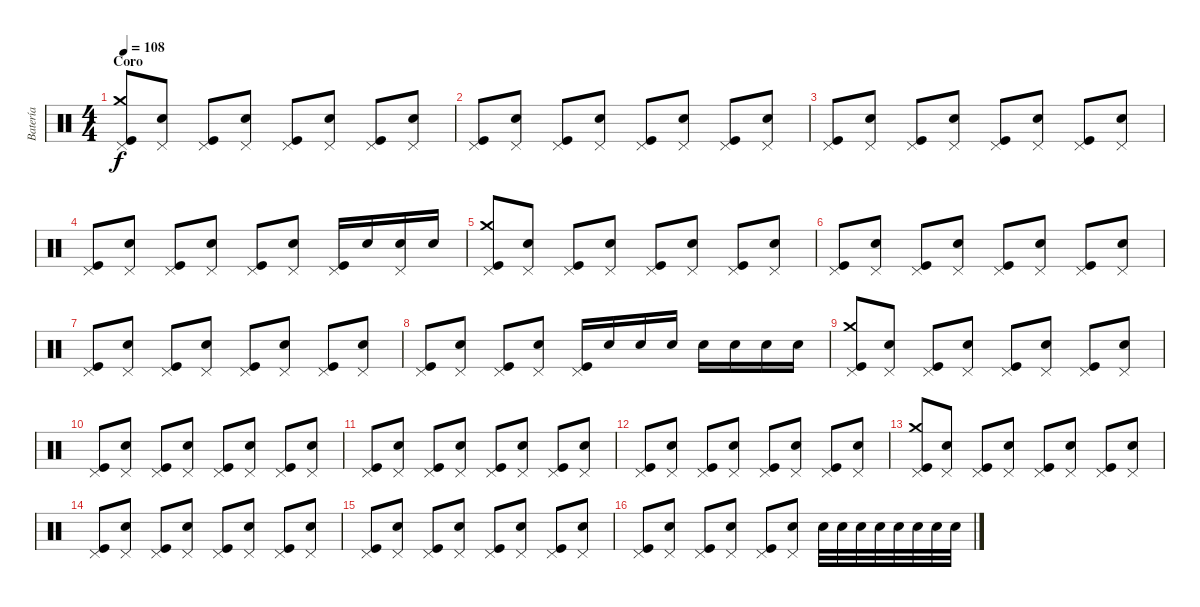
\track ("Batería" "Batería") {instrument percussion}
\staff {score}
\articulation defaults
\ts (4 4)
\section ("" "Coro")
\tempo 108
\clef neutral
\ks c
("Pedal Hi-Hat (hit)" "Crash medium (hit)" "Kick (hit)").8{dy f} ("Pedal Hi-Hat (hit)" "Electric Snare (hit)").8 ("Pedal Hi-Hat (hit)" "Kick (hit)").8 ("Pedal Hi-Hat (hit)" "Electric Snare (hit)").8 ("Pedal Hi-Hat (hit)" "Kick (hit)").8 ("Pedal Hi-Hat (hit)" "Electric Snare (hit)").8 ("Pedal Hi-Hat (hit)" "Kick (hit)").8 ("Pedal Hi-Hat (hit)" "Electric Snare (hit)").8 |
("Pedal Hi-Hat (hit)" "Kick (hit)").8 ("Pedal Hi-Hat (hit)" "Electric Snare (hit)").8 ("Pedal Hi-Hat (hit)" "Kick (hit)").8 ("Pedal Hi-Hat (hit)" "Electric Snare (hit)").8 ("Pedal Hi-Hat (hit)" "Kick (hit)").8 ("Pedal Hi-Hat (hit)" "Electric Snare (hit)").8 ("Pedal Hi-Hat (hit)" "Kick (hit)").8 ("Pedal Hi-Hat (hit)" "Electric Snare (hit)").8 |
("Pedal Hi-Hat (hit)" "Kick (hit)").8 ("Pedal Hi-Hat (hit)" "Electric Snare (hit)").8 ("Pedal Hi-Hat (hit)" "Kick (hit)").8 ("Pedal Hi-Hat (hit)" "Electric Snare (hit)").8 ("Pedal Hi-Hat (hit)" "Kick (hit)").8 ("Pedal Hi-Hat (hit)" "Electric Snare (hit)").8 ("Pedal Hi-Hat (hit)" "Kick (hit)").8 ("Pedal Hi-Hat (hit)" "Electric Snare (hit)").8 |
("Pedal Hi-Hat (hit)" "Kick (hit)").8 ("Pedal Hi-Hat (hit)" "Electric Snare (hit)").8 ("Pedal Hi-Hat (hit)" "Kick (hit)").8 ("Pedal Hi-Hat (hit)" "Electric Snare (hit)").8 ("Pedal Hi-Hat (hit)" "Kick (hit)").8 ("Pedal Hi-Hat (hit)" "Electric Snare (hit)").8 ("Pedal Hi-Hat (hit)" "Kick (hit)").16 "Electric Snare (hit)".16 ("Pedal Hi-Hat (hit)" "Electric Snare (hit)").16 "Electric Snare (hit)".16 |
("Pedal Hi-Hat (hit)" "Crash medium (hit)" "Kick (hit)").8 ("Pedal Hi-Hat (hit)" "Electric Snare (hit)").8 ("Pedal Hi-Hat (hit)" "Kick (hit)").8 ("Pedal Hi-Hat (hit)" "Electric Snare (hit)").8 ("Pedal Hi-Hat (hit)" "Kick (hit)").8 ("Pedal Hi-Hat (hit)" "Electric Snare (hit)").8 ("Pedal Hi-Hat (hit)" "Kick (hit)").8 ("Pedal Hi-Hat (hit)" "Electric Snare (hit)").8 |
("Pedal Hi-Hat (hit)" "Kick (hit)").8 ("Pedal Hi-Hat (hit)" "Electric Snare (hit)").8 ("Pedal Hi-Hat (hit)" "Kick (hit)").8 ("Pedal Hi-Hat (hit)" "Electric Snare (hit)").8 ("Pedal Hi-Hat (hit)" "Kick (hit)").8 ("Pedal Hi-Hat (hit)" "Electric Snare (hit)").8 ("Pedal Hi-Hat (hit)" "Kick (hit)").8 ("Pedal Hi-Hat (hit)" "Electric Snare (hit)").8 |
("Pedal Hi-Hat (hit)" "Kick (hit)").8 ("Pedal Hi-Hat (hit)" "Electric Snare (hit)").8 ("Pedal Hi-Hat (hit)" "Kick (hit)").8 ("Pedal Hi-Hat (hit)" "Electric Snare (hit)").8 ("Pedal Hi-Hat (hit)" "Kick (hit)").8 ("Pedal Hi-Hat (hit)" "Electric Snare (hit)").8 ("Pedal Hi-Hat (hit)" "Kick (hit)").8 ("Pedal Hi-Hat (hit)" "Electric Snare (hit)").8 |
("Pedal Hi-Hat (hit)" "Kick (hit)").8 ("Pedal Hi-Hat (hit)" "Electric Snare (hit)").8 ("Pedal Hi-Hat (hit)" "Kick (hit)").8 ("Pedal Hi-Hat (hit)" "Electric Snare (hit)").8 ("Pedal Hi-Hat (hit)" "Kick (hit)").16 "Electric Snare (hit)".16 "Electric Snare (hit)".16 "Electric Snare (hit)".16 "Electric Snare (hit)".16 "Electric Snare (hit)".16 "Electric Snare (hit)".16 "Electric Snare (hit)".16 |
("Pedal Hi-Hat (hit)" "Crash medium (hit)" "Kick (hit)").8 ("Pedal Hi-Hat (hit)" "Electric Snare (hit)").8 ("Pedal Hi-Hat (hit)" "Kick (hit)").8 ("Pedal Hi-Hat (hit)" "Electric Snare (hit)").8 ("Pedal Hi-Hat (hit)" "Kick (hit)").8 ("Pedal Hi-Hat (hit)" "Electric Snare (hit)").8 ("Pedal Hi-Hat (hit)" "Kick (hit)").8 ("Pedal Hi-Hat (hit)" "Electric Snare (hit)").8 |
("Pedal Hi-Hat (hit)" "Kick (hit)").8 ("Pedal Hi-Hat (hit)" "Electric Snare (hit)").8 ("Pedal Hi-Hat (hit)" "Kick (hit)").8 ("Pedal Hi-Hat (hit)" "Electric Snare (hit)").8 ("Pedal Hi-Hat (hit)" "Kick (hit)").8 ("Pedal Hi-Hat (hit)" "Electric Snare (hit)").8 ("Pedal Hi-Hat (hit)" "Kick (hit)").8 ("Pedal Hi-Hat (hit)" "Electric Snare (hit)").8 |
("Pedal Hi-Hat (hit)" "Kick (hit)").8 ("Pedal Hi-Hat (hit)" "Electric Snare (hit)").8 ("Pedal Hi-Hat (hit)" "Kick (hit)").8 ("Pedal Hi-Hat (hit)" "Electric Snare (hit)").8 ("Pedal Hi-Hat (hit)" "Kick (hit)").8 ("Pedal Hi-Hat (hit)" "Electric Snare (hit)").8 ("Pedal Hi-Hat (hit)" "Kick (hit)").8 ("Pedal Hi-Hat (hit)" "Electric Snare (hit)").8 |
("Pedal Hi-Hat (hit)" "Kick (hit)").8 ("Pedal Hi-Hat (hit)" "Electric Snare (hit)").8 ("Pedal Hi-Hat (hit)" "Kick (hit)").8 ("Pedal Hi-Hat (hit)" "Electric Snare (hit)").8 ("Pedal Hi-Hat (hit)" "Kick (hit)").8 ("Pedal Hi-Hat (hit)" "Electric Snare (hit)").8 ("Pedal Hi-Hat (hit)" "Kick (hit)").8 ("Pedal Hi-Hat (hit)" "Electric Snare (hit)").8 |
("Pedal Hi-Hat (hit)" "Crash medium (hit)" "Kick (hit)").8 ("Pedal Hi-Hat (hit)" "Electric Snare (hit)").8 ("Pedal Hi-Hat (hit)" "Kick (hit)").8 ("Pedal Hi-Hat (hit)" "Electric Snare (hit)").8 ("Pedal Hi-Hat (hit)" "Kick (hit)").8 ("Pedal Hi-Hat (hit)" "Electric Snare (hit)").8 ("Pedal Hi-Hat (hit)" "Kick (hit)").8 ("Pedal Hi-Hat (hit)" "Electric Snare (hit)").8 |
("Pedal Hi-Hat (hit)" "Kick (hit)").8 ("Pedal Hi-Hat (hit)" "Electric Snare (hit)").8 ("Pedal Hi-Hat (hit)" "Kick (hit)").8 ("Pedal Hi-Hat (hit)" "Electric Snare (hit)").8 ("Pedal Hi-Hat (hit)" "Kick (hit)").8 ("Pedal Hi-Hat (hit)" "Electric Snare (hit)").8 ("Pedal Hi-Hat (hit)" "Kick (hit)").8 ("Pedal Hi-Hat (hit)" "Electric Snare (hit)").8 |
("Pedal Hi-Hat (hit)" "Kick (hit)").8 ("Pedal Hi-Hat (hit)" "Electric Snare (hit)").8 ("Pedal Hi-Hat (hit)" "Kick (hit)").8 ("Pedal Hi-Hat (hit)" "Electric Snare (hit)").8 ("Pedal Hi-Hat (hit)" "Kick (hit)").8 ("Pedal Hi-Hat (hit)" "Electric Snare (hit)").8 ("Pedal Hi-Hat (hit)" "Kick (hit)").8 ("Pedal Hi-Hat (hit)" "Electric Snare (hit)").8 |
("Pedal Hi-Hat (hit)" "Kick (hit)").8 ("Pedal Hi-Hat (hit)" "Electric Snare (hit)").8 ("Pedal Hi-Hat (hit)" "Kick (hit)").8 ("Pedal Hi-Hat (hit)" "Electric Snare (hit)").8 ("Pedal Hi-Hat (hit)" "Kick (hit)").8 ("Pedal Hi-Hat (hit)" "Electric Snare (hit)").8 "Electric Snare (hit)".32 "Electric Snare (hit)".32 "Electric Snare (hit)".32 "Electric Snare (hit)".32 "Electric Snare (hit)".32 "Electric Snare (hit)".32 "Electric Snare (hit)".32 "Electric Snare (hit)".32
